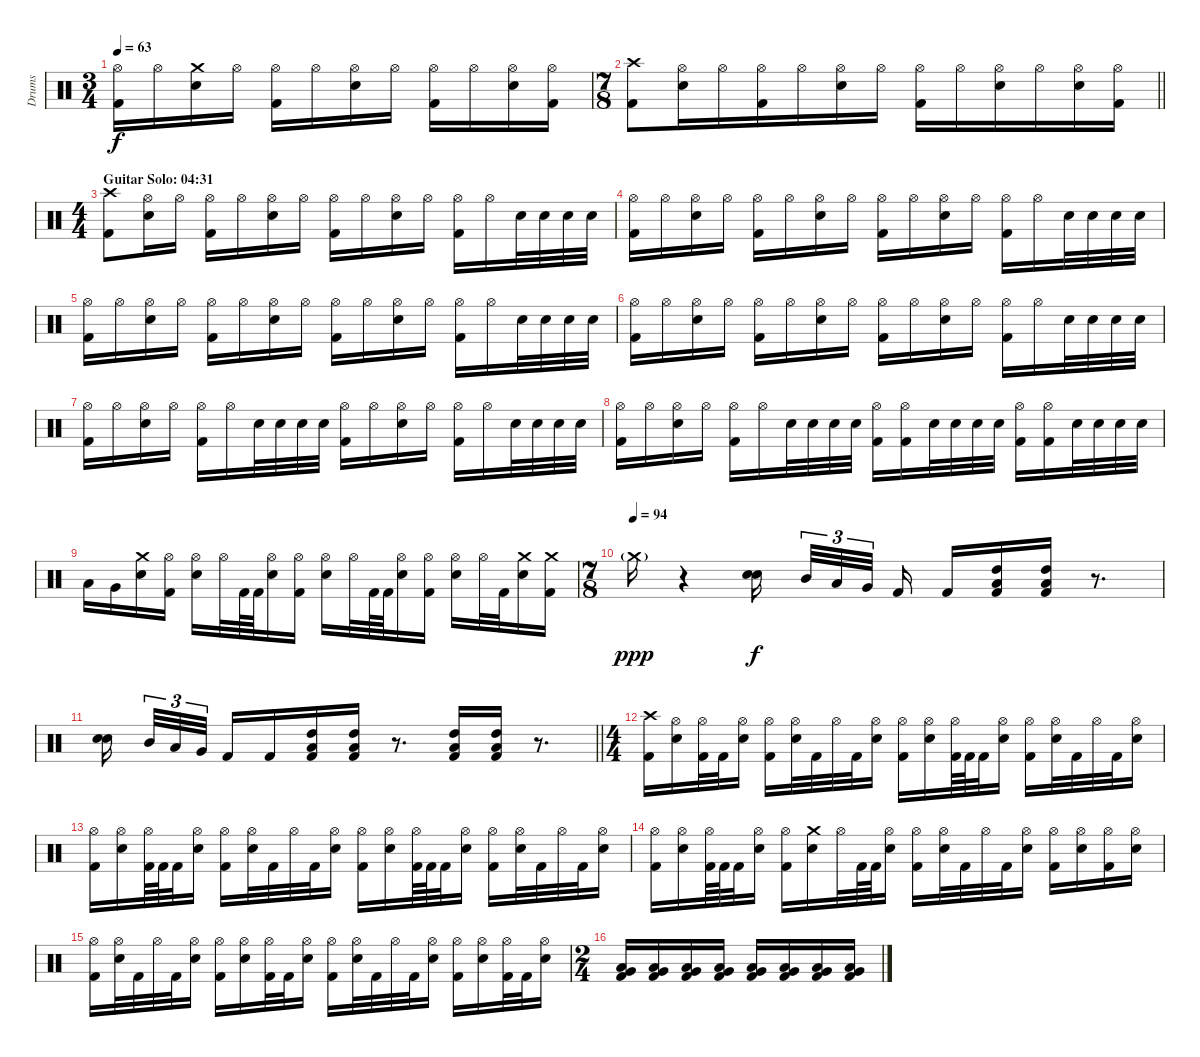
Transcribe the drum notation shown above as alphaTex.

\track ("Drums" "Drums") {instrument percussion}
\staff {score}
\articulation defaults
\ts (3 4)
\tempo 63
\clef neutral
\ks c
("Hi-Hat (open)" "Kick (hit) 2").16{dy f} "Hi-Hat (open)".16 ("Crash medium (hit)" "Electric Snare (hit)").16 "Hi-Hat (open)".16 ("Hi-Hat (open)" "Kick (hit) 2").16 "Hi-Hat (open)".16 ("Hi-Hat (open)" "Electric Snare (hit)").16 "Hi-Hat (open)".16 ("Hi-Hat (open)" "Kick (hit) 2").16 "Hi-Hat (open)".16 ("Hi-Hat (open)" "Electric Snare (hit)").16 ("Hi-Hat (open)" "Kick (hit) 2").16 |
\ts (7 8)
\barLineRight lightlight
("Crash high (hit)" "Kick (hit) 2").8 ("Hi-Hat (open)" "Electric Snare (hit)").16 "Hi-Hat (open)".16 ("Hi-Hat (open)" "Kick (hit) 2").16 "Hi-Hat (open)".16 ("Hi-Hat (open)" "Electric Snare (hit)").16 "Hi-Hat (open)".16 ("Hi-Hat (open)" "Kick (hit) 2").16 "Hi-Hat (open)".16 ("Hi-Hat (open)" "Electric Snare (hit)").16 "Hi-Hat (open)".16 ("Hi-Hat (open)" "Electric Snare (hit)").16 ("Hi-Hat (open)" "Kick (hit) 2").16 |
\ts (4 4)
\section ("" "Guitar Solo: 04:31")
("Crash high (hit)" "Kick (hit) 2").8 ("Hi-Hat (open)" "Electric Snare (hit)").16 "Hi-Hat (open)".16 ("Hi-Hat (open)" "Kick (hit) 2").16 "Hi-Hat (open)".16 ("Hi-Hat (open)" "Electric Snare (hit)").16 "Hi-Hat (open)".16 ("Hi-Hat (open)" "Kick (hit) 2").16 "Hi-Hat (open)".16 ("Hi-Hat (open)" "Electric Snare (hit)").16 "Hi-Hat (open)".16 ("Hi-Hat (open)" "Kick (hit) 2").16 "Hi-Hat (open)".16 "Electric Snare (hit)".32 "Electric Snare (hit)".32 "Electric Snare (hit)".32 "Electric Snare (hit)".32 |
("Hi-Hat (open)" "Kick (hit) 2").16 "Hi-Hat (open)".16 ("Hi-Hat (open)" "Electric Snare (hit)").16 "Hi-Hat (open)".16 ("Hi-Hat (open)" "Kick (hit) 2").16 "Hi-Hat (open)".16 ("Hi-Hat (open)" "Electric Snare (hit)").16 "Hi-Hat (open)".16 ("Hi-Hat (open)" "Kick (hit) 2").16 "Hi-Hat (open)".16 ("Hi-Hat (open)" "Electric Snare (hit)").16 "Hi-Hat (open)".16 ("Hi-Hat (open)" "Kick (hit) 2").16 "Hi-Hat (open)".16 "Electric Snare (hit)".32 "Electric Snare (hit)".32 "Electric Snare (hit)".32 "Electric Snare (hit)".32 |
("Hi-Hat (open)" "Kick (hit) 2").16 "Hi-Hat (open)".16 ("Hi-Hat (open)" "Electric Snare (hit)").16 "Hi-Hat (open)".16 ("Hi-Hat (open)" "Kick (hit) 2").16 "Hi-Hat (open)".16 ("Hi-Hat (open)" "Electric Snare (hit)").16 "Hi-Hat (open)".16 ("Hi-Hat (open)" "Kick (hit) 2").16 "Hi-Hat (open)".16 ("Hi-Hat (open)" "Electric Snare (hit)").16 "Hi-Hat (open)".16 ("Hi-Hat (open)" "Kick (hit) 2").16 "Hi-Hat (open)".16 "Electric Snare (hit)".32 "Electric Snare (hit)".32 "Electric Snare (hit)".32 "Electric Snare (hit)".32 |
("Hi-Hat (open)" "Kick (hit) 2").16 "Hi-Hat (open)".16 ("Hi-Hat (open)" "Electric Snare (hit)").16 "Hi-Hat (open)".16 ("Hi-Hat (open)" "Kick (hit) 2").16 "Hi-Hat (open)".16 ("Hi-Hat (open)" "Electric Snare (hit)").16 "Hi-Hat (open)".16 ("Hi-Hat (open)" "Kick (hit) 2").16 "Hi-Hat (open)".16 ("Hi-Hat (open)" "Electric Snare (hit)").16 "Hi-Hat (open)".16 ("Hi-Hat (open)" "Kick (hit) 2").16 "Hi-Hat (open)".16 "Electric Snare (hit)".32 "Electric Snare (hit)".32 "Electric Snare (hit)".32 "Electric Snare (hit)".32 |
("Hi-Hat (open)" "Kick (hit) 2").16 "Hi-Hat (open)".16 ("Hi-Hat (open)" "Electric Snare (hit)").16 "Hi-Hat (open)".16 ("Hi-Hat (open)" "Kick (hit) 2").16 "Hi-Hat (open)".16 "Electric Snare (hit)".32 "Electric Snare (hit)".32 "Electric Snare (hit)".32 "Electric Snare (hit)".32 ("Hi-Hat (open)" "Kick (hit) 2").16 "Hi-Hat (open)".16 ("Hi-Hat (open)" "Electric Snare (hit)").16 "Hi-Hat (open)".16 ("Hi-Hat (open)" "Kick (hit) 2").16 "Hi-Hat (open)".16 "Electric Snare (hit)".32 "Electric Snare (hit)".32 "Electric Snare (hit)".32 "Electric Snare (hit)".32 |
("Hi-Hat (open)" "Kick (hit) 2").16 "Hi-Hat (open)".16 ("Hi-Hat (open)" "Electric Snare (hit)").16 "Hi-Hat (open)".16 ("Hi-Hat (open)" "Kick (hit) 2").16 "Hi-Hat (open)".16 "Electric Snare (hit)".32 "Electric Snare (hit)".32 "Electric Snare (hit)".32 "Electric Snare (hit)".32 ("Hi-Hat (open)" "Kick (hit) 2").16 ("Hi-Hat (open)" "Kick (hit) 2").16 "Electric Snare (hit)".32 "Electric Snare (hit)".32 "Electric Snare (hit)".32 "Electric Snare (hit)".32 ("Hi-Hat (open)" "Kick (hit) 2").16 ("Hi-Hat (open)" "Kick (hit) 2").16 "Electric Snare (hit)".32 "Electric Snare (hit)".32 "Electric Snare (hit)".32 "Electric Snare (hit)".32 |
"Low Tom (hit)".16 "Very Low Tom (hit)".16 ("Crash medium (hit)" "Electric Snare (hit)").16 ("Hi-Hat (open)" "Kick (hit) 2").16 ("Hi-Hat (open)" "Electric Snare (hit)").16 "Hi-Hat (open)".32 "Kick (hit) 2".64 "Kick (hit) 2".64 ("Hi-Hat (open)" "Electric Snare (hit)").16 ("Hi-Hat (open)" "Kick (hit) 2").16 ("Hi-Hat (open)" "Electric Snare (hit)").16 "Hi-Hat (open)".32 "Kick (hit) 2".64 "Kick (hit) 2".64 ("Hi-Hat (open)" "Electric Snare (hit)").16 ("Hi-Hat (open)" "Kick (hit) 2").16 ("Hi-Hat (open)" "Electric Snare (hit)").16 "Hi-Hat (open)".32 "Kick (hit) 2".32 ("Crash medium (hit)" "Electric Snare (hit)").16 ("Crash medium (hit)" "Kick (hit) 2").16 |
\ts (7 8)
\tempo (94)
"Crash medium (hit)"{g}.16{dy ppp} r.4 ("Electric Snare (hit)" "Electric Snare (hit)").16{bd 60 dy f} "Mid Tom (hit)".32{tu (3 2)} "Low Tom (hit)".32{tu (3 2)} "Very Low Tom (hit)".32{tu (3 2) beam splitsecondary} "Kick (hit) 2".16 "Kick (hit) 2".16 ("High Tom (hit)" "Low Tom (hit)" "Kick (hit) 2").16 ("High Tom (hit)" "Low Tom (hit)" "Kick (hit) 2").16 r.8{d} |
\barLineRight lightlight
("Electric Snare (hit)" "Electric Snare (hit)").16{bd 60 beam splitsecondary} "Mid Tom (hit)".32{tu (3 2)} "Low Tom (hit)".32{tu (3 2)} "Very Low Tom (hit)".32{tu (3 2)} "Kick (hit) 2".16 "Kick (hit) 2".16 ("High Tom (hit)" "Low Tom (hit)" "Kick (hit) 2").16 ("High Tom (hit)" "Low Tom (hit)" "Kick (hit) 2").16 r.8{d} ("High Tom (hit)" "Low Tom (hit)" "Kick (hit) 2").16 ("High Tom (hit)" "Low Tom (hit)" "Kick (hit) 2").16 r.8{d} |
\ts (4 4)
("Crash high (hit)" "Kick (hit) 2").16 ("Hi-Hat (open)" "Electric Snare (hit)").16 ("Hi-Hat (open)" "Kick (hit) 2").32 "Kick (hit) 2".32 ("Hi-Hat (open)" "Electric Snare (hit)").16 ("Hi-Hat (open)" "Kick (hit) 2").16 ("Hi-Hat (open)" "Electric Snare (hit)").32 "Kick (hit) 2".32 "Hi-Hat (open)".32 "Kick (hit) 2".32 ("Hi-Hat (open)" "Electric Snare (hit)").16 ("Hi-Hat (open)" "Kick (hit) 2").16 ("Hi-Hat (open)" "Electric Snare (hit)").16 ("Hi-Hat (open)" "Kick (hit) 2").64 "Kick (hit) 2".64 "Kick (hit) 2".32 ("Hi-Hat (open)" "Electric Snare (hit)").16 ("Hi-Hat (open)" "Kick (hit) 2").16 ("Hi-Hat (open)" "Electric Snare (hit)").32 "Kick (hit) 2".32 "Hi-Hat (open)".32 "Kick (hit) 2".32 ("Hi-Hat (open)" "Electric Snare (hit)").16 |
("Hi-Hat (open)" "Kick (hit) 2").16 ("Hi-Hat (open)" "Electric Snare (hit)").16 ("Hi-Hat (open)" "Kick (hit) 2").64 "Kick (hit) 2".64 "Kick (hit) 2".32 ("Hi-Hat (open)" "Electric Snare (hit)").16 ("Hi-Hat (open)" "Kick (hit) 2").16 ("Hi-Hat (open)" "Electric Snare (hit)").32 "Kick (hit) 2".32 "Hi-Hat (open)".32 "Kick (hit) 2".32 ("Hi-Hat (open)" "Electric Snare (hit)").16 ("Hi-Hat (open)" "Kick (hit) 2").16 ("Hi-Hat (open)" "Electric Snare (hit)").16 ("Hi-Hat (open)" "Kick (hit) 2").64 "Kick (hit) 2".64 "Kick (hit) 2".32 ("Hi-Hat (open)" "Electric Snare (hit)").16 ("Hi-Hat (open)" "Kick (hit) 2").16 ("Hi-Hat (open)" "Electric Snare (hit)").32 "Kick (hit) 2".32 "Hi-Hat (open)".32 "Kick (hit) 2".32 ("Hi-Hat (open)" "Electric Snare (hit)").16 |
("Hi-Hat (open)" "Kick (hit) 2").16 ("Hi-Hat (open)" "Electric Snare (hit)").16 ("Hi-Hat (open)" "Kick (hit) 2").64 "Kick (hit) 2".64 "Kick (hit) 2".32 ("Hi-Hat (open)" "Electric Snare (hit)").16 ("Hi-Hat (open)" "Kick (hit) 2").16 ("Crash medium (hit)" "Electric Snare (hit)").16 "Hi-Hat (open)".32 "Kick (hit) 2".64 "Kick (hit) 2".64 ("Hi-Hat (open)" "Electric Snare (hit)").16 ("Hi-Hat (open)" "Kick (hit) 2").16 ("Hi-Hat (open)" "Electric Snare (hit)").32 "Kick (hit) 2".32 "Hi-Hat (open)".32 "Kick (hit) 2".32 ("Hi-Hat (open)" "Electric Snare (hit)").16 ("Hi-Hat (open)" "Kick (hit) 2").16 ("Hi-Hat (open)" "Electric Snare (hit)").16 ("Hi-Hat (open)" "Kick (hit) 2").16 ("Hi-Hat (open)" "Electric Snare (hit)").16 |
("Hi-Hat (open)" "Kick (hit) 2").16 ("Hi-Hat (open)" "Electric Snare (hit)").32 "Kick (hit) 2".32 "Hi-Hat (open)".32 "Kick (hit) 2".32 ("Hi-Hat (open)" "Electric Snare (hit)").16 ("Hi-Hat (open)" "Kick (hit) 2").16 ("Hi-Hat (open)" "Electric Snare (hit)").16 ("Hi-Hat (open)" "Kick (hit) 2").32 "Kick (hit) 2".32 ("Hi-Hat (open)" "Electric Snare (hit)").16 ("Hi-Hat (open)" "Kick (hit) 2").16 ("Hi-Hat (open)" "Electric Snare (hit)").32 "Kick (hit) 2".32 "Hi-Hat (open)".32 "Kick (hit) 2".32 ("Hi-Hat (open)" "Electric Snare (hit)").16 ("Hi-Hat (open)" "Kick (hit) 2").16 ("Hi-Hat (open)" "Electric Snare (hit)").16 ("Hi-Hat (open)" "Kick (hit) 2").32 "Kick (hit) 2".32 ("Hi-Hat (open)" "Electric Snare (hit)").16 |
\ts (2 4)
("Low Tom (hit)" "Very Low Tom (hit)" "Kick (hit) 2").16{bd 30} ("Low Tom (hit)" "Very Low Tom (hit)" "Kick (hit) 2").16{bd 30} ("Low Tom (hit)" "Very Low Tom (hit)" "Kick (hit) 2").16{bd 30} ("Low Tom (hit)" "Very Low Tom (hit)" "Kick (hit) 2").16{bd 30} ("Low Tom (hit)" "Very Low Tom (hit)" "Kick (hit) 2").16{bd 30} ("Low Tom (hit)" "Very Low Tom (hit)" "Kick (hit) 2").16{bd 30} ("Low Tom (hit)" "Very Low Tom (hit)" "Kick (hit) 2").16{bd 30} ("Low Tom (hit)" "Very Low Tom (hit)" "Kick (hit) 2").16{bd 30}
